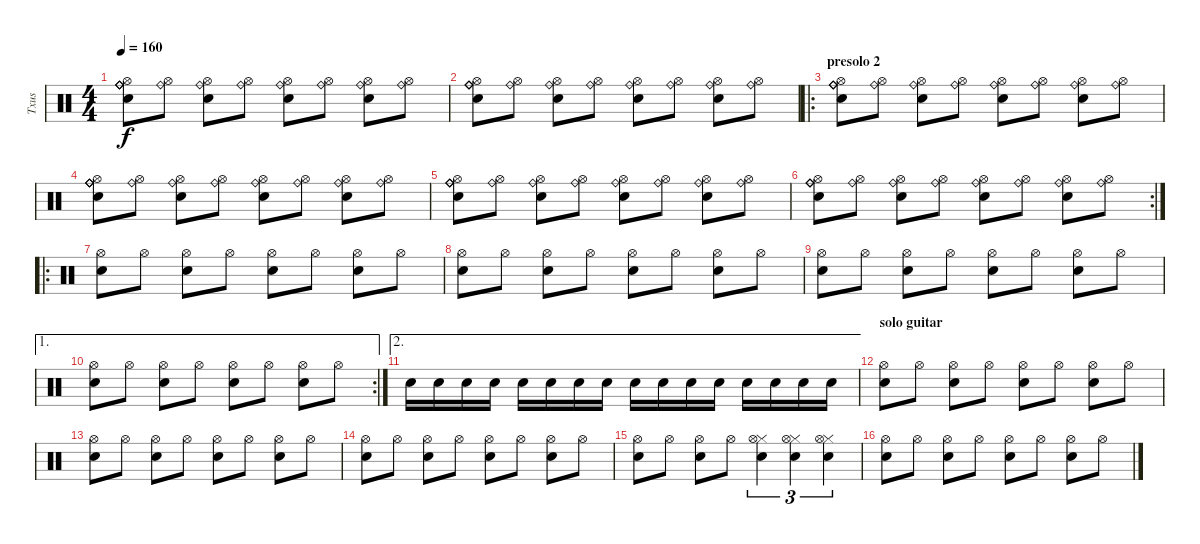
\track ("Txus" "Txus") {instrument percussion}
\staff {score}
\articulation defaults
\ts (4 4)
\tempo 160
\clef neutral
\ks c
("Snare (hit) 2" "Hi-Hat (open)" "Ride (bell)" "Ride (bell)" "Ride (bell)").8{dy f} ("Hi-Hat (open)" "Ride (bell)").8 ("Snare (hit) 2" "Hi-Hat (open)" "Ride (bell)").8 ("Hi-Hat (open)" "Ride (bell)").8 ("Snare (hit) 2" "Hi-Hat (open)" "Ride (bell)").8 ("Hi-Hat (open)" "Ride (bell)").8 ("Snare (hit) 2" "Hi-Hat (open)" "Ride (bell)").8 ("Hi-Hat (open)" "Ride (bell)").8 |
("Snare (hit) 2" "Hi-Hat (open)" "Ride (bell)" "Ride (bell)" "Ride (bell)").8 ("Hi-Hat (open)" "Ride (bell)").8 ("Snare (hit) 2" "Hi-Hat (open)" "Ride (bell)").8 ("Hi-Hat (open)" "Ride (bell)").8 ("Snare (hit) 2" "Hi-Hat (open)" "Ride (bell)").8 ("Hi-Hat (open)" "Ride (bell)").8 ("Snare (hit) 2" "Hi-Hat (open)" "Ride (bell)").8 ("Hi-Hat (open)" "Ride (bell)").8 |
\ro
\section ("" "presolo 2")
("Snare (hit) 2" "Hi-Hat (open)" "Ride (bell)" "Ride (bell)" "Ride (bell)").8 ("Hi-Hat (open)" "Ride (bell)").8 ("Snare (hit) 2" "Hi-Hat (open)" "Ride (bell)").8 ("Hi-Hat (open)" "Ride (bell)").8 ("Snare (hit) 2" "Hi-Hat (open)" "Ride (bell)").8 ("Hi-Hat (open)" "Ride (bell)").8 ("Snare (hit) 2" "Hi-Hat (open)" "Ride (bell)").8 ("Hi-Hat (open)" "Ride (bell)").8 |
("Snare (hit) 2" "Hi-Hat (open)" "Ride (bell)" "Ride (bell)" "Ride (bell)").8 ("Hi-Hat (open)" "Ride (bell)").8 ("Snare (hit) 2" "Hi-Hat (open)" "Ride (bell)").8 ("Hi-Hat (open)" "Ride (bell)").8 ("Snare (hit) 2" "Hi-Hat (open)" "Ride (bell)").8 ("Hi-Hat (open)" "Ride (bell)").8 ("Snare (hit) 2" "Hi-Hat (open)" "Ride (bell)").8 ("Hi-Hat (open)" "Ride (bell)").8 |
("Snare (hit) 2" "Hi-Hat (open)" "Ride (bell)" "Ride (bell)" "Ride (bell)").8 ("Hi-Hat (open)" "Ride (bell)").8 ("Snare (hit) 2" "Hi-Hat (open)" "Ride (bell)").8 ("Hi-Hat (open)" "Ride (bell)").8 ("Snare (hit) 2" "Hi-Hat (open)" "Ride (bell)").8 ("Hi-Hat (open)" "Ride (bell)").8 ("Snare (hit) 2" "Hi-Hat (open)" "Ride (bell)").8 ("Hi-Hat (open)" "Ride (bell)").8 |
\rc 2
("Snare (hit) 2" "Hi-Hat (open)" "Ride (bell)" "Ride (bell)" "Ride (bell)").8 ("Hi-Hat (open)" "Ride (bell)").8 ("Snare (hit) 2" "Hi-Hat (open)" "Ride (bell)").8 ("Hi-Hat (open)" "Ride (bell)").8 ("Snare (hit) 2" "Hi-Hat (open)" "Ride (bell)").8 ("Hi-Hat (open)" "Ride (bell)").8 ("Snare (hit) 2" "Hi-Hat (open)" "Ride (bell)").8 ("Hi-Hat (open)" "Ride (bell)").8 |
\ro
("Snare (hit) 2" "Hi-Hat (open)").8 "Hi-Hat (open)".8 ("Snare (hit) 2" "Hi-Hat (open)").8 "Hi-Hat (open)".8 ("Snare (hit) 2" "Hi-Hat (open)").8 "Hi-Hat (open)".8 ("Snare (hit) 2" "Hi-Hat (open)").8 "Hi-Hat (open)".8 |
("Snare (hit) 2" "Hi-Hat (open)").8 "Hi-Hat (open)".8 ("Snare (hit) 2" "Hi-Hat (open)").8 "Hi-Hat (open)".8 ("Snare (hit) 2" "Hi-Hat (open)").8 "Hi-Hat (open)".8 ("Snare (hit) 2" "Hi-Hat (open)").8 "Hi-Hat (open)".8 |
("Snare (hit) 2" "Hi-Hat (open)").8 "Hi-Hat (open)".8 ("Snare (hit) 2" "Hi-Hat (open)").8 "Hi-Hat (open)".8 ("Snare (hit) 2" "Hi-Hat (open)").8 "Hi-Hat (open)".8 ("Snare (hit) 2" "Hi-Hat (open)").8 "Hi-Hat (open)".8 |
\ae 1
\rc 2
("Snare (hit) 2" "Hi-Hat (open)").8 "Hi-Hat (open)".8 ("Snare (hit) 2" "Hi-Hat (open)").8 "Hi-Hat (open)".8 ("Snare (hit) 2" "Hi-Hat (open)").8 "Hi-Hat (open)".8 ("Snare (hit) 2" "Hi-Hat (open)").8 "Hi-Hat (open)".8 |
\ae 2 "Snare (hit) 2".16 "Snare (hit) 2".16 "Snare (hit) 2".16 "Snare (hit) 2".16 "Snare (hit) 2".16 "Snare (hit) 2".16 "Snare (hit) 2".16 "Snare (hit) 2".16 "Snare (hit) 2".16 "Snare (hit) 2".16 "Snare (hit) 2".16 "Snare (hit) 2".16 "Snare (hit) 2".16 "Snare (hit) 2".16 "Snare (hit) 2".16 "Snare (hit) 2".16
|
\section ("" "solo guitar")
("Snare (hit) 2" "Hi-Hat (open)").8 "Hi-Hat (open)".8 ("Snare (hit) 2" "Hi-Hat (open)").8 "Hi-Hat (open)".8 ("Snare (hit) 2" "Hi-Hat (open)").8 "Hi-Hat (open)".8 ("Snare (hit) 2" "Hi-Hat (open)").8 "Hi-Hat (open)".8 |
("Snare (hit) 2" "Hi-Hat (open)").8 "Hi-Hat (open)".8 ("Snare (hit) 2" "Hi-Hat (open)").8 "Hi-Hat (open)".8 ("Snare (hit) 2" "Hi-Hat (open)").8 "Hi-Hat (open)".8 ("Snare (hit) 2" "Hi-Hat (open)").8 "Hi-Hat (open)".8 |
("Snare (hit) 2" "Hi-Hat (open)").8 "Hi-Hat (open)".8 ("Snare (hit) 2" "Hi-Hat (open)").8 "Hi-Hat (open)".8 ("Snare (hit) 2" "Hi-Hat (open)").8 "Hi-Hat (open)".8 ("Snare (hit) 2" "Hi-Hat (open)").8 "Hi-Hat (open)".8 |
("Snare (hit) 2" "Hi-Hat (open)").8 "Hi-Hat (open)".8 ("Snare (hit) 2" "Hi-Hat (open)").8 "Hi-Hat (open)".8 ("Snare (hit) 2" "Hi-Hat (closed)" "Hi-Hat (open)").4{tu (3 2)} ("Snare (hit) 2" "Hi-Hat (closed)" "Hi-Hat (open)").4{tu (3 2)} ("Snare (hit) 2" "Hi-Hat (closed)" "Hi-Hat (open)").4{tu (3 2)} |
("Snare (hit) 2" "Hi-Hat (open)").8 "Hi-Hat (open)".8 ("Snare (hit) 2" "Hi-Hat (open)").8 "Hi-Hat (open)".8 ("Snare (hit) 2" "Hi-Hat (open)").8 "Hi-Hat (open)".8 ("Snare (hit) 2" "Hi-Hat (open)").8 "Hi-Hat (open)".8
